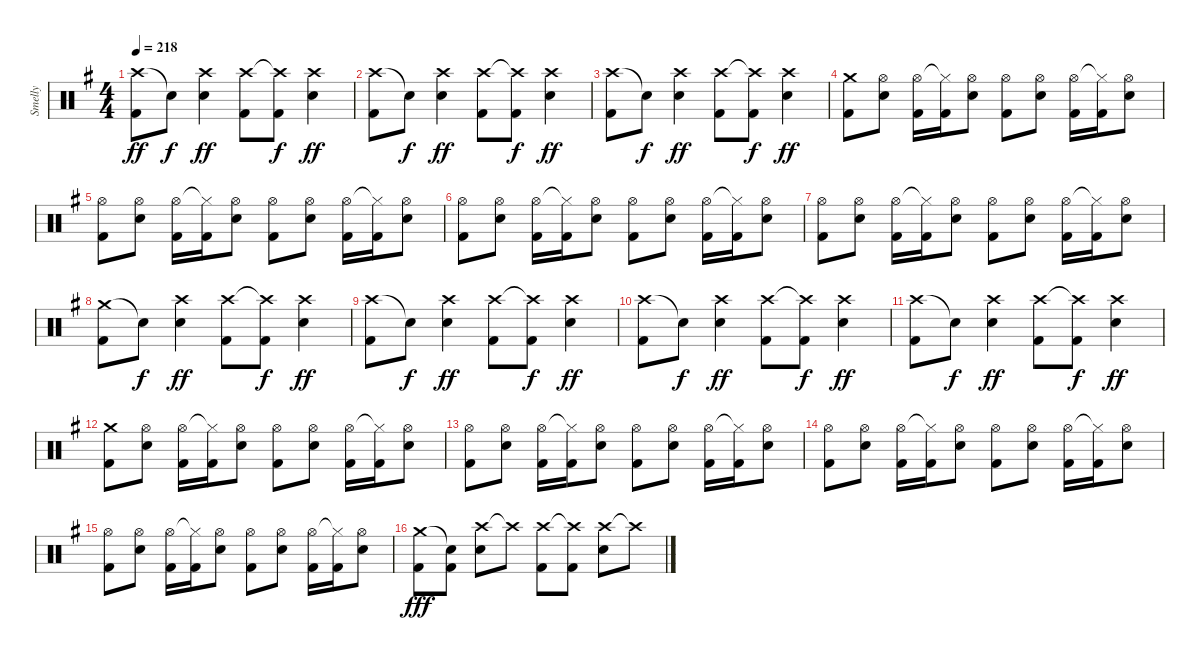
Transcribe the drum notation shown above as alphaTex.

\track ("Smelly" "Smelly") {instrument percussion}
\staff {score}
\articulation defaults
\ts (4 4)
\tempo 218
\clef neutral
\ks eminor
("Crash high (hit)" "Kick (hit) 2").8{dy ff} "Snare (hit)"{t}.8{dy f} ("Crash high (hit)" "Electric Snare (hit)").4{dy ff} ("Crash high (hit)" "Kick (hit) 2").8 ("Crash high (hit)"{t} "Kick (hit) 2").8{dy f} ("Crash high (hit)" "Electric Snare (hit)").4{dy ff} |
("Crash high (hit)" "Kick (hit) 2").8 "Snare (hit)"{t}.8{dy f} ("Crash high (hit)" "Electric Snare (hit)").4{dy ff} ("Crash high (hit)" "Kick (hit) 2").8 ("Crash high (hit)"{t} "Kick (hit) 2").8{dy f} ("Crash high (hit)" "Electric Snare (hit)").4{dy ff} |
("Crash high (hit)" "Kick (hit) 2").8 "Snare (hit)"{t}.8{dy f} ("Crash high (hit)" "Electric Snare (hit)").4{dy ff} ("Crash high (hit)" "Kick (hit) 2").8 ("Crash high (hit)"{t} "Kick (hit) 2").8{dy f} ("Crash high (hit)" "Electric Snare (hit)").4{dy ff} |
("Crash medium (hit)" "Kick (hit) 2").8 ("Hi-Hat (open)" "Electric Snare (hit)").8 ("Hi-Hat (open)" "Kick (hit) 2").16 ("Hi-Hat (closed)"{t} "Kick (hit) 2").16 ("Hi-Hat (open)" "Electric Snare (hit)").8 ("Hi-Hat (open)" "Kick (hit) 2").8 ("Hi-Hat (open)" "Electric Snare (hit)").8 ("Hi-Hat (open)" "Kick (hit) 2").16 ("Hi-Hat (closed)"{t} "Kick (hit) 2").16 ("Hi-Hat (open)" "Electric Snare (hit)").8 |
("Hi-Hat (open)" "Kick (hit) 2").8 ("Hi-Hat (open)" "Electric Snare (hit)").8 ("Hi-Hat (open)" "Kick (hit) 2").16 ("Hi-Hat (closed)"{t} "Kick (hit) 2").16 ("Hi-Hat (open)" "Electric Snare (hit)").8 ("Hi-Hat (open)" "Kick (hit) 2").8 ("Hi-Hat (open)" "Electric Snare (hit)").8 ("Hi-Hat (open)" "Kick (hit) 2").16 ("Hi-Hat (closed)"{t} "Kick (hit) 2").16 ("Hi-Hat (open)" "Electric Snare (hit)").8 |
("Hi-Hat (open)" "Kick (hit) 2").8 ("Hi-Hat (open)" "Electric Snare (hit)").8 ("Hi-Hat (open)" "Kick (hit) 2").16 ("Hi-Hat (closed)"{t} "Kick (hit) 2").16 ("Hi-Hat (open)" "Electric Snare (hit)").8 ("Hi-Hat (open)" "Kick (hit) 2").8 ("Hi-Hat (open)" "Electric Snare (hit)").8 ("Hi-Hat (open)" "Kick (hit) 2").16 ("Hi-Hat (closed)"{t} "Kick (hit) 2").16 ("Hi-Hat (open)" "Electric Snare (hit)").8 |
("Hi-Hat (open)" "Kick (hit) 2").8 ("Hi-Hat (open)" "Electric Snare (hit)").8 ("Hi-Hat (open)" "Kick (hit) 2").16 ("Hi-Hat (closed)"{t} "Kick (hit) 2").16 ("Hi-Hat (open)" "Electric Snare (hit)").8 ("Hi-Hat (open)" "Kick (hit) 2").8 ("Hi-Hat (open)" "Electric Snare (hit)").8 ("Hi-Hat (open)" "Kick (hit) 2").16 ("Hi-Hat (closed)"{t} "Kick (hit) 2").16 ("Hi-Hat (open)" "Electric Snare (hit)").8 |
("Crash medium (hit)" "Kick (hit) 2").8 "Snare (hit)"{t}.8{dy f} ("Crash high (hit)" "Electric Snare (hit)").4{dy ff} ("Crash high (hit)" "Kick (hit) 2").8 ("Crash high (hit)"{t} "Kick (hit) 2").8{dy f} ("Crash high (hit)" "Electric Snare (hit)").4{dy ff} |
("Crash high (hit)" "Kick (hit) 2").8 "Snare (hit)"{t}.8{dy f} ("Crash high (hit)" "Electric Snare (hit)").4{dy ff} ("Crash high (hit)" "Kick (hit) 2").8 ("Crash high (hit)"{t} "Kick (hit) 2").8{dy f} ("Crash high (hit)" "Electric Snare (hit)").4{dy ff} |
("Crash high (hit)" "Kick (hit) 2").8 "Snare (hit)"{t}.8{dy f} ("Crash high (hit)" "Electric Snare (hit)").4{dy ff} ("Crash high (hit)" "Kick (hit) 2").8 ("Crash high (hit)"{t} "Kick (hit) 2").8{dy f} ("Crash high (hit)" "Electric Snare (hit)").4{dy ff} |
("Crash high (hit)" "Kick (hit) 2").8 "Snare (hit)"{t}.8{dy f} ("Crash high (hit)" "Electric Snare (hit)").4{dy ff} ("Crash high (hit)" "Kick (hit) 2").8 ("Crash high (hit)"{t} "Kick (hit) 2").8{dy f} ("Crash high (hit)" "Electric Snare (hit)").4{dy ff} |
("Crash medium (hit)" "Kick (hit) 2").8 ("Hi-Hat (open)" "Electric Snare (hit)").8 ("Hi-Hat (open)" "Kick (hit) 2").16 ("Hi-Hat (closed)"{t} "Kick (hit) 2").16 ("Hi-Hat (open)" "Electric Snare (hit)").8 ("Hi-Hat (open)" "Kick (hit) 2").8 ("Hi-Hat (open)" "Electric Snare (hit)").8 ("Hi-Hat (open)" "Kick (hit) 2").16 ("Hi-Hat (closed)"{t} "Kick (hit) 2").16 ("Hi-Hat (open)" "Electric Snare (hit)").8 |
("Hi-Hat (open)" "Kick (hit) 2").8 ("Hi-Hat (open)" "Electric Snare (hit)").8 ("Hi-Hat (open)" "Kick (hit) 2").16 ("Hi-Hat (closed)"{t} "Kick (hit) 2").16 ("Hi-Hat (open)" "Electric Snare (hit)").8 ("Hi-Hat (open)" "Kick (hit) 2").8 ("Hi-Hat (open)" "Electric Snare (hit)").8 ("Hi-Hat (open)" "Kick (hit) 2").16 ("Hi-Hat (closed)"{t} "Kick (hit) 2").16 ("Hi-Hat (open)" "Electric Snare (hit)").8 |
("Hi-Hat (open)" "Kick (hit) 2").8 ("Hi-Hat (open)" "Electric Snare (hit)").8 ("Hi-Hat (open)" "Kick (hit) 2").16 ("Hi-Hat (closed)"{t} "Kick (hit) 2").16 ("Hi-Hat (open)" "Electric Snare (hit)").8 ("Hi-Hat (open)" "Kick (hit) 2").8 ("Hi-Hat (open)" "Electric Snare (hit)").8 ("Hi-Hat (open)" "Kick (hit) 2").16 ("Hi-Hat (closed)"{t} "Kick (hit) 2").16 ("Hi-Hat (open)" "Electric Snare (hit)").8 |
("Hi-Hat (open)" "Kick (hit) 2").8 ("Hi-Hat (open)" "Electric Snare (hit)").8 ("Hi-Hat (open)" "Kick (hit) 2").16 ("Hi-Hat (closed)"{t} "Kick (hit) 2").16 ("Hi-Hat (open)" "Electric Snare (hit)").8 ("Hi-Hat (open)" "Kick (hit) 2").8 ("Hi-Hat (open)" "Electric Snare (hit)").8 ("Hi-Hat (open)" "Kick (hit) 2").16 ("Hi-Hat (closed)"{t} "Kick (hit) 2").16 ("Hi-Hat (open)" "Electric Snare (hit)").8 |
("Crash medium (hit)" "Kick (hit) 2").8{dy fff} ("Snare (hit)"{t} "Kick (hit) 2").8 ("Crash high (hit)" "Electric Snare (hit)").8 "Crash high (hit)"{t}.8 ("Crash high (hit)" "Kick (hit) 2").8 ("Crash high (hit)"{t} "Kick (hit) 2").8 ("Crash high (hit)" "Electric Snare (hit)").8 "Crash high (hit)"{t}.8
